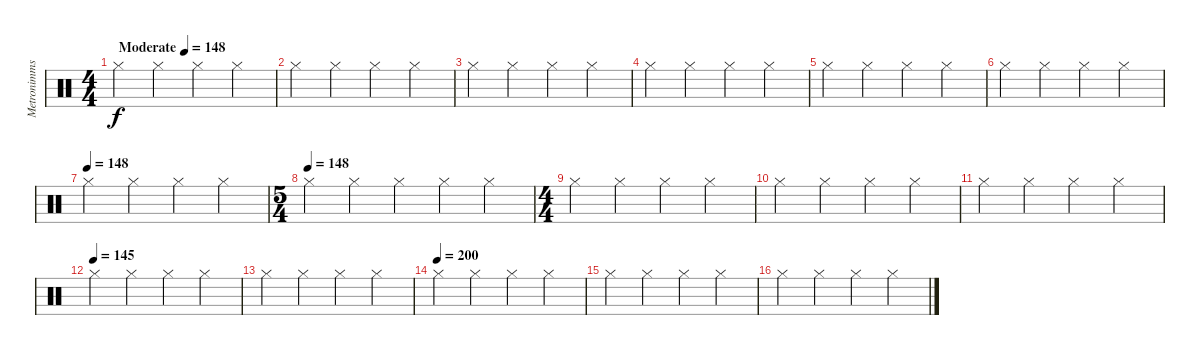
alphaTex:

\track ("Metronimms" "Metronimms") {instrument percussion}
\staff {score}
\articulation defaults
\ts (4 4)
\tempo (148 "Moderate")
\clef neutral
\ks c "Hi-Hat (closed)".4{dy f} "Hi-Hat (closed)".4 "Hi-Hat (closed)".4 "Hi-Hat (closed)".4
|
"Hi-Hat (closed)".4 "Hi-Hat (closed)".4 "Hi-Hat (closed)".4 "Hi-Hat (closed)".4 |
"Hi-Hat (closed)".4 "Hi-Hat (closed)".4 "Hi-Hat (closed)".4 "Hi-Hat (closed)".4 |
"Hi-Hat (closed)".4 "Hi-Hat (closed)".4 "Hi-Hat (closed)".4 "Hi-Hat (closed)".4 |
"Hi-Hat (closed)".4 "Hi-Hat (closed)".4 "Hi-Hat (closed)".4 "Hi-Hat (closed)".4 |
"Hi-Hat (closed)".4 "Hi-Hat (closed)".4 "Hi-Hat (closed)".4 "Hi-Hat (closed)".4 |
\tempo (148)
"Hi-Hat (closed)".4 "Hi-Hat (closed)".4 "Hi-Hat (closed)".4 "Hi-Hat (closed)".4 |
\ts (5 4)
\tempo (148)
"Hi-Hat (closed)".4 "Hi-Hat (closed)".4 "Hi-Hat (closed)".4 "Hi-Hat (closed)".4 "Hi-Hat (closed)".4 |
\ts (4 4)
"Hi-Hat (closed)".4 "Hi-Hat (closed)".4 "Hi-Hat (closed)".4 "Hi-Hat (closed)".4 |
"Hi-Hat (closed)".4 "Hi-Hat (closed)".4 "Hi-Hat (closed)".4 "Hi-Hat (closed)".4 |
"Hi-Hat (closed)".4 "Hi-Hat (closed)".4 "Hi-Hat (closed)".4 "Hi-Hat (closed)".4 |
\tempo (145)
"Hi-Hat (closed)".4 "Hi-Hat (closed)".4 "Hi-Hat (closed)".4 "Hi-Hat (closed)".4 |
"Hi-Hat (closed)".4 "Hi-Hat (closed)".4 "Hi-Hat (closed)".4 "Hi-Hat (closed)".4 |
\tempo (200)
"Hi-Hat (closed)".4 "Hi-Hat (closed)".4 "Hi-Hat (closed)".4 "Hi-Hat (closed)".4 |
"Hi-Hat (closed)".4 "Hi-Hat (closed)".4 "Hi-Hat (closed)".4 "Hi-Hat (closed)".4 |
"Hi-Hat (closed)".4 "Hi-Hat (closed)".4 "Hi-Hat (closed)".4 "Hi-Hat (closed)".4
